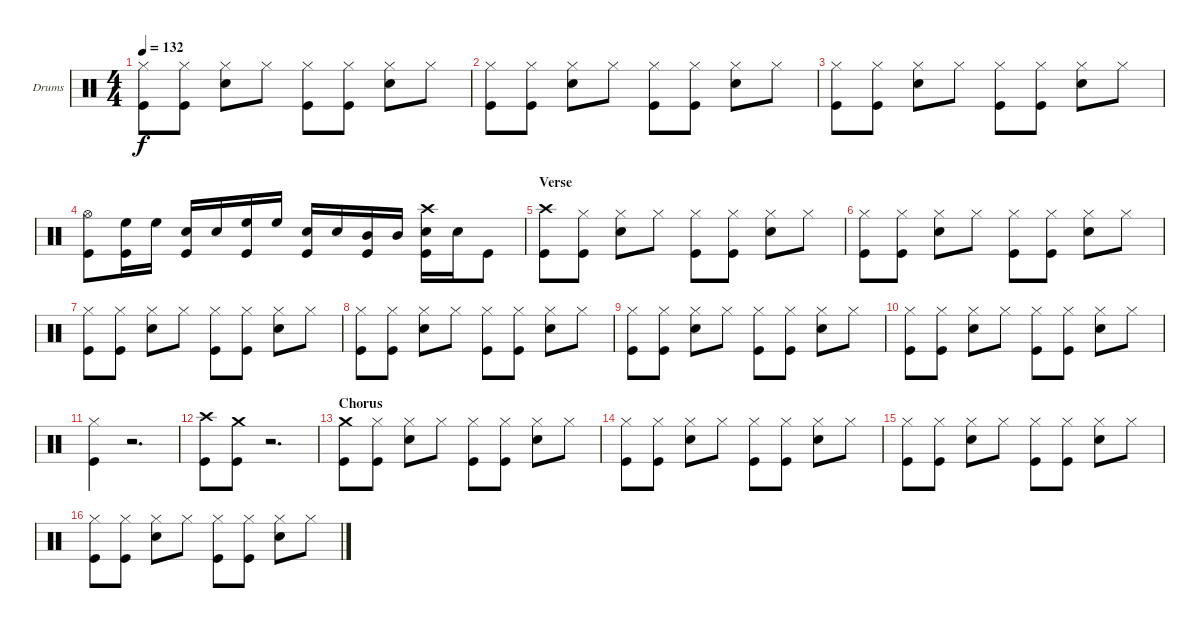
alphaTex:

\bracketExtendMode groupsimilarinstruments
\firstSystemTrackNameOrientation horizontal
\otherSystemsTrackNameOrientation horizontal
\track ("Drumkit" "Drums") {instrument percussion}
\staff {score}
\articulation defaults
\ts (4 4)
\tempo 132
\clef neutral
\ks c
("Kick (hit)" "Hi-Hat (closed)").8{dy f} ("Kick (hit)" "Hi-Hat (closed)").8 ("Snare (hit) 2" "Hi-Hat (closed)").8 "Hi-Hat (closed)".8 ("Kick (hit)" "Hi-Hat (closed)").8 ("Kick (hit)" "Hi-Hat (closed)").8 ("Snare (hit) 2" "Hi-Hat (closed)").8 "Hi-Hat (closed)".8 |
("Kick (hit)" "Hi-Hat (closed)").8 ("Kick (hit)" "Hi-Hat (closed)").8 ("Snare (hit) 2" "Hi-Hat (closed)").8 "Hi-Hat (closed)".8 ("Kick (hit)" "Hi-Hat (closed)").8 ("Kick (hit)" "Hi-Hat (closed)").8 ("Snare (hit) 2" "Hi-Hat (closed)").8 "Hi-Hat (closed)".8 |
("Kick (hit)" "Hi-Hat (closed)").8 ("Kick (hit)" "Hi-Hat (closed)").8 ("Snare (hit) 2" "Hi-Hat (closed)").8 "Hi-Hat (closed)".8 ("Kick (hit)" "Hi-Hat (closed)").8 ("Kick (hit)" "Hi-Hat (closed)").8 ("Snare (hit) 2" "Hi-Hat (closed)").8 "Hi-Hat (closed)".8 |
("Kick (hit)" "Hi-Hat (open)").8 ("Kick (hit)" "High Floor Tom (hit)").16 "High Floor Tom (hit)".16 ("Kick (hit)" "Snare (hit) 2").16 "Snare (hit) 2".16 ("Kick (hit)" "High Floor Tom (hit)").16 "High Floor Tom (hit)".16 ("Kick (hit)" "Snare (hit) 2").16 "Snare (hit) 2".16 ("Kick (hit)" "Mid Tom (hit)").16 "Mid Tom (hit)".16 ("Kick (hit)" "Snare (hit) 2" "Crash high (hit)").16 "Snare (hit) 2".16 "Kick (hit)".8 |
\section ("" "Verse")
("Kick (hit)" "Crash high (hit)").8 ("Kick (hit)" "Hi-Hat (closed)").8 ("Snare (hit) 2" "Hi-Hat (closed)").8 "Hi-Hat (closed)".8 ("Kick (hit)" "Hi-Hat (closed)").8 ("Kick (hit)" "Hi-Hat (closed)").8 ("Snare (hit) 2" "Hi-Hat (closed)").8 "Hi-Hat (closed)".8 |
("Kick (hit)" "Hi-Hat (closed)").8 ("Kick (hit)" "Hi-Hat (closed)").8 ("Snare (hit) 2" "Hi-Hat (closed)").8 "Hi-Hat (closed)".8 ("Kick (hit)" "Hi-Hat (closed)").8 ("Kick (hit)" "Hi-Hat (closed)").8 ("Snare (hit) 2" "Hi-Hat (closed)").8 "Hi-Hat (closed)".8 |
("Kick (hit)" "Hi-Hat (closed)").8 ("Kick (hit)" "Hi-Hat (closed)").8 ("Snare (hit) 2" "Hi-Hat (closed)").8 "Hi-Hat (closed)".8 ("Kick (hit)" "Hi-Hat (closed)").8 ("Kick (hit)" "Hi-Hat (closed)").8 ("Snare (hit) 2" "Hi-Hat (closed)").8 "Hi-Hat (closed)".8 |
("Kick (hit)" "Hi-Hat (closed)").8 ("Kick (hit)" "Hi-Hat (closed)").8 ("Snare (hit) 2" "Hi-Hat (closed)").8 "Hi-Hat (closed)".8 ("Kick (hit)" "Hi-Hat (closed)").8 ("Kick (hit)" "Hi-Hat (closed)").8 ("Snare (hit) 2" "Hi-Hat (closed)").8 "Hi-Hat (closed)".8 |
("Kick (hit)" "Hi-Hat (closed)").8 ("Kick (hit)" "Hi-Hat (closed)").8 ("Snare (hit) 2" "Hi-Hat (closed)").8 "Hi-Hat (closed)".8 ("Kick (hit)" "Hi-Hat (closed)").8 ("Kick (hit)" "Hi-Hat (closed)").8 ("Snare (hit) 2" "Hi-Hat (closed)").8 "Hi-Hat (closed)".8 |
("Kick (hit)" "Hi-Hat (closed)").8 ("Kick (hit)" "Hi-Hat (closed)").8 ("Snare (hit) 2" "Hi-Hat (closed)").8 "Hi-Hat (closed)".8 ("Kick (hit)" "Hi-Hat (closed)").8 ("Kick (hit)" "Hi-Hat (closed)").8 ("Snare (hit) 2" "Hi-Hat (closed)").8 "Hi-Hat (closed)".8 |
("Kick (hit)" "Hi-Hat (closed)").4 r.2{d} |
("Kick (hit)" "Crash high (hit)").8 ("Kick (hit)" "Crash medium (hit)").8 r.2{d} |
\section ("" "Chorus")
("Kick (hit)" "Crash medium (hit)").8 ("Kick (hit)" "Hi-Hat (closed)").8 ("Snare (hit) 2" "Hi-Hat (closed)").8 "Hi-Hat (closed)".8 ("Kick (hit)" "Hi-Hat (closed)").8 ("Kick (hit)" "Hi-Hat (closed)").8 ("Snare (hit) 2" "Hi-Hat (closed)").8 "Hi-Hat (closed)".8 |
("Kick (hit)" "Hi-Hat (closed)").8 ("Kick (hit)" "Hi-Hat (closed)").8 ("Snare (hit) 2" "Hi-Hat (closed)").8 "Hi-Hat (closed)".8 ("Kick (hit)" "Hi-Hat (closed)").8 ("Kick (hit)" "Hi-Hat (closed)").8 ("Snare (hit) 2" "Hi-Hat (closed)").8 "Hi-Hat (closed)".8 |
("Kick (hit)" "Hi-Hat (closed)").8 ("Kick (hit)" "Hi-Hat (closed)").8 ("Snare (hit) 2" "Hi-Hat (closed)").8 "Hi-Hat (closed)".8 ("Kick (hit)" "Hi-Hat (closed)").8 ("Kick (hit)" "Hi-Hat (closed)").8 ("Snare (hit) 2" "Hi-Hat (closed)").8 "Hi-Hat (closed)".8 |
("Kick (hit)" "Hi-Hat (closed)").8 ("Kick (hit)" "Hi-Hat (closed)").8 ("Snare (hit) 2" "Hi-Hat (closed)").8 "Hi-Hat (closed)".8 ("Kick (hit)" "Hi-Hat (closed)").8 ("Kick (hit)" "Hi-Hat (closed)").8 ("Snare (hit) 2" "Hi-Hat (closed)").8 "Hi-Hat (closed)".8
